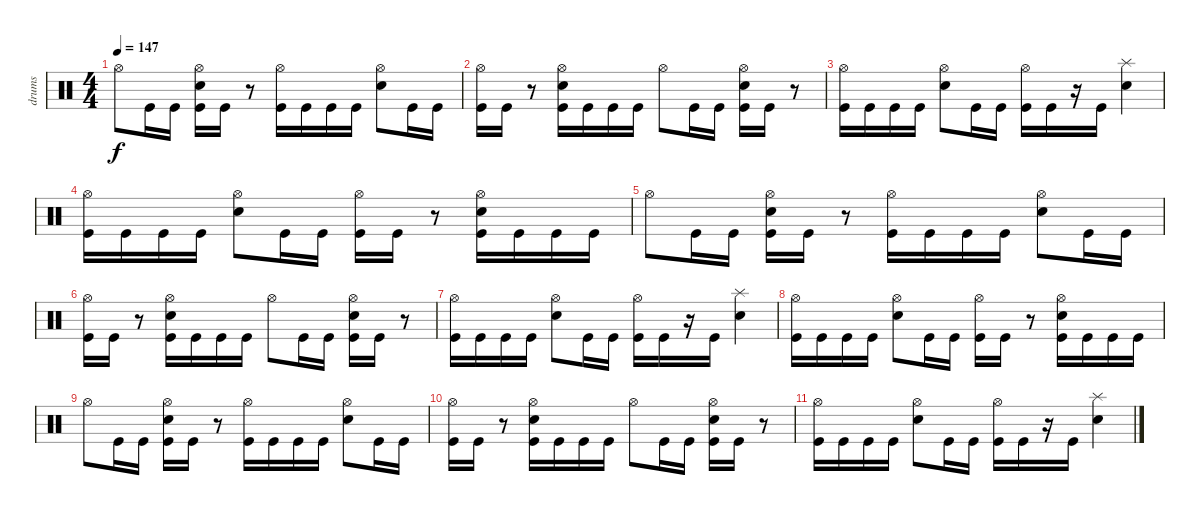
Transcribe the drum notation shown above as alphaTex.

\track ("drums" "drums") {instrument percussion}
\staff {score}
\articulation defaults
\ts (4 4)
\tempo 147
\clef neutral
\ks c "Hi-Hat (open)".8{dy f} "Kick (hit)".16 "Kick (hit)".16
("Hi-Hat (open)" "Snare (hit) 2" "Kick (hit)").16 "Kick (hit)".16 r.8 ("Kick (hit)" "Hi-Hat (open)").16 "Kick (hit)".16 "Kick (hit)".16 "Kick (hit)".16 ("Snare (hit) 2" "Hi-Hat (open)").8 "Kick (hit)".16 "Kick (hit)".16 |
("Kick (hit)" "Hi-Hat (open)").16 "Kick (hit)".16 r.8 ("Snare (hit) 2" "Hi-Hat (open)" "Kick (hit)").16 "Kick (hit)".16 "Kick (hit)".16 "Kick (hit)".16 "Hi-Hat (open)".8 "Kick (hit)".16 "Kick (hit)".16 ("Snare (hit) 2" "Hi-Hat (open)" "Kick (hit)").16 "Kick (hit)".16 r.8 |
("Hi-Hat (open)" "Kick (hit)").16 "Kick (hit)".16 "Kick (hit)".16 "Kick (hit)".16 ("Hi-Hat (open)" "Snare (hit) 2").8 "Kick (hit)".16 "Kick (hit)".16 ("Kick (hit)" "Hi-Hat (open)").16 "Kick (hit)".16 r.16 "Kick (hit)".16 ("Splash (hit)" "Snare (hit) 2").4 |
("Hi-Hat (open)" "Kick (hit)").16 "Kick (hit)".16 "Kick (hit)".16 "Kick (hit)".16 ("Snare (hit) 2" "Hi-Hat (open)").8 "Kick (hit)".16 "Kick (hit)".16 ("Hi-Hat (open)" "Kick (hit)").16 "Kick (hit)".16 r.8 ("Hi-Hat (open)" "Snare (hit) 2" "Kick (hit)").16 "Kick (hit)".16 "Kick (hit)".16 "Kick (hit)".16 |
"Hi-Hat (open)".8 "Kick (hit)".16 "Kick (hit)".16 ("Snare (hit) 2" "Kick (hit)" "Hi-Hat (open)").16 "Kick (hit)".16 r.8 ("Hi-Hat (open)" "Kick (hit)").16 "Kick (hit)".16 "Kick (hit)".16 "Kick (hit)".16 ("Hi-Hat (open)" "Snare (hit) 2").8 "Kick (hit)".16 "Kick (hit)".16 |
("Kick (hit)" "Hi-Hat (open)").16 "Kick (hit)".16 r.8 ("Hi-Hat (open)" "Kick (hit)" "Snare (hit) 2").16 "Kick (hit)".16 "Kick (hit)".16 "Kick (hit)".16 "Hi-Hat (open)".8 "Kick (hit)".16 "Kick (hit)".16 ("Hi-Hat (open)" "Kick (hit)" "Snare (hit) 2").16 "Kick (hit)".16 r.8 |
("Kick (hit)" "Hi-Hat (open)").16 "Kick (hit)".16 "Kick (hit)".16 "Kick (hit)".16 ("Hi-Hat (open)" "Snare (hit) 2").8 "Kick (hit)".16 "Kick (hit)".16 ("Hi-Hat (open)" "Kick (hit)").16 "Kick (hit)".16 r.16 "Kick (hit)".16 ("Snare (hit) 2" "Splash (hit)").4 |
("Kick (hit)" "Hi-Hat (open)").16 "Kick (hit)".16 "Kick (hit)".16 "Kick (hit)".16 ("Hi-Hat (open)" "Snare (hit) 2").8 "Kick (hit)".16 "Kick (hit)".16 ("Hi-Hat (open)" "Kick (hit)").16 "Kick (hit)".16 r.8 ("Snare (hit) 2" "Kick (hit)" "Hi-Hat (open)").16 "Kick (hit)".16 "Kick (hit)".16 "Kick (hit)".16 |
"Hi-Hat (open)".8 "Kick (hit)".16 "Kick (hit)".16 ("Kick (hit)" "Hi-Hat (open)" "Snare (hit) 2").16 "Kick (hit)".16 r.8 ("Kick (hit)" "Hi-Hat (open)").16 "Kick (hit)".16 "Kick (hit)".16 "Kick (hit)".16 ("Hi-Hat (open)" "Snare (hit) 2").8 "Kick (hit)".16 "Kick (hit)".16 |
("Kick (hit)" "Hi-Hat (open)").16 "Kick (hit)".16 r.8 ("Hi-Hat (open)" "Snare (hit) 2" "Kick (hit)").16 "Kick (hit)".16 "Kick (hit)".16 "Kick (hit)".16 "Hi-Hat (open)".8 "Kick (hit)".16 "Kick (hit)".16 ("Snare (hit) 2" "Kick (hit)" "Hi-Hat (open)").16 "Kick (hit)".16 r.8 |
("Hi-Hat (open)" "Kick (hit)").16 "Kick (hit)".16 "Kick (hit)".16 "Kick (hit)".16 ("Snare (hit) 2" "Hi-Hat (open)").8 "Kick (hit)".16 "Kick (hit)".16 ("Hi-Hat (open)" "Kick (hit)").16 "Kick (hit)".16 r.16 "Kick (hit)".16 ("Splash (hit)" "Snare (hit) 2").4
